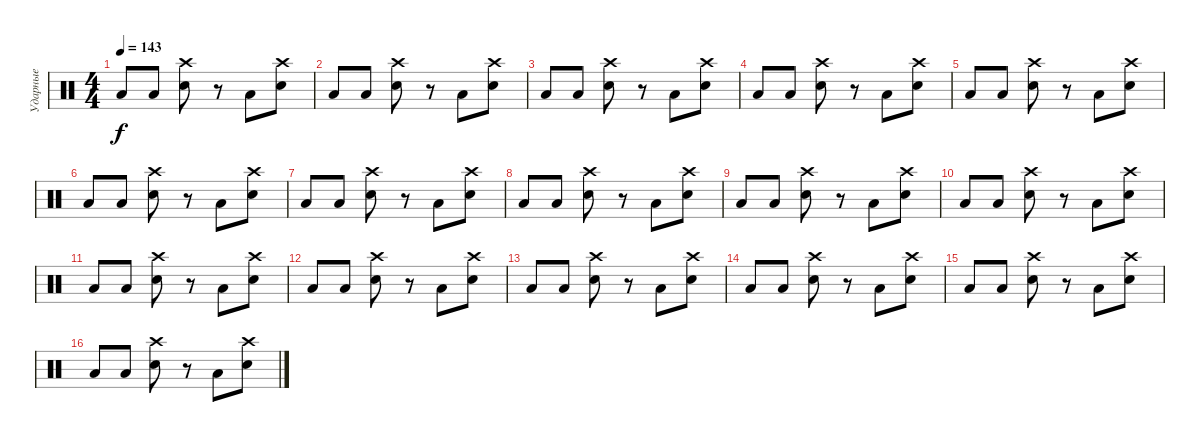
\track ("Ударные" "Ударные") {instrument percussion}
\staff {score}
\articulation defaults
\ts (4 4)
\tempo 143
\clef neutral
\ks c "Low Tom (hit)".8{dy f} "Low Tom (hit)".8
("Crash high (hit)" "Snare (hit) 2").8 r.8 "Low Tom (hit)".8 ("Crash high (hit)" "Snare (hit) 2").8 |
"Low Tom (hit)".8 "Low Tom (hit)".8 ("Crash high (hit)" "Snare (hit) 2").8 r.8 "Low Tom (hit)".8 ("Crash high (hit)" "Snare (hit) 2").8 |
"Low Tom (hit)".8 "Low Tom (hit)".8 ("Crash high (hit)" "Snare (hit) 2").8 r.8 "Low Tom (hit)".8 ("Crash high (hit)" "Snare (hit) 2").8 |
"Low Tom (hit)".8 "Low Tom (hit)".8 ("Crash high (hit)" "Snare (hit) 2").8 r.8 "Low Tom (hit)".8 ("Crash high (hit)" "Snare (hit) 2").8 |
"Low Tom (hit)".8 "Low Tom (hit)".8 ("Crash high (hit)" "Snare (hit) 2").8 r.8 "Low Tom (hit)".8 ("Crash high (hit)" "Snare (hit) 2").8 |
"Low Tom (hit)".8 "Low Tom (hit)".8 ("Crash high (hit)" "Snare (hit) 2").8 r.8 "Low Tom (hit)".8 ("Crash high (hit)" "Snare (hit) 2").8 |
"Low Tom (hit)".8 "Low Tom (hit)".8 ("Crash high (hit)" "Snare (hit) 2").8 r.8 "Low Tom (hit)".8 ("Crash high (hit)" "Snare (hit) 2").8 |
"Low Tom (hit)".8 "Low Tom (hit)".8 ("Crash high (hit)" "Snare (hit) 2").8 r.8 "Low Tom (hit)".8 ("Crash high (hit)" "Snare (hit) 2").8 |
"Low Tom (hit)".8 "Low Tom (hit)".8 ("Crash high (hit)" "Snare (hit) 2").8 r.8 "Low Tom (hit)".8 ("Crash high (hit)" "Snare (hit) 2").8 |
"Low Tom (hit)".8 "Low Tom (hit)".8 ("Crash high (hit)" "Snare (hit) 2").8 r.8 "Low Tom (hit)".8 ("Crash high (hit)" "Snare (hit) 2").8 |
"Low Tom (hit)".8 "Low Tom (hit)".8 ("Crash high (hit)" "Snare (hit) 2").8 r.8 "Low Tom (hit)".8 ("Crash high (hit)" "Snare (hit) 2").8 |
"Low Tom (hit)".8 "Low Tom (hit)".8 ("Crash high (hit)" "Snare (hit) 2").8 r.8 "Low Tom (hit)".8 ("Crash high (hit)" "Snare (hit) 2").8 |
"Low Tom (hit)".8 "Low Tom (hit)".8 ("Crash high (hit)" "Snare (hit) 2").8 r.8 "Low Tom (hit)".8 ("Crash high (hit)" "Snare (hit) 2").8 |
"Low Tom (hit)".8 "Low Tom (hit)".8 ("Crash high (hit)" "Snare (hit) 2").8 r.8 "Low Tom (hit)".8 ("Crash high (hit)" "Snare (hit) 2").8 |
"Low Tom (hit)".8{volume 10} "Low Tom (hit)".8 ("Crash high (hit)" "Snare (hit) 2").8 r.8 "Low Tom (hit)".8 ("Crash high (hit)" "Snare (hit) 2").8 |
"Low Tom (hit)".8 "Low Tom (hit)".8 ("Crash high (hit)" "Snare (hit) 2").8 r.8 "Low Tom (hit)".8 ("Crash high (hit)" "Snare (hit) 2").8
